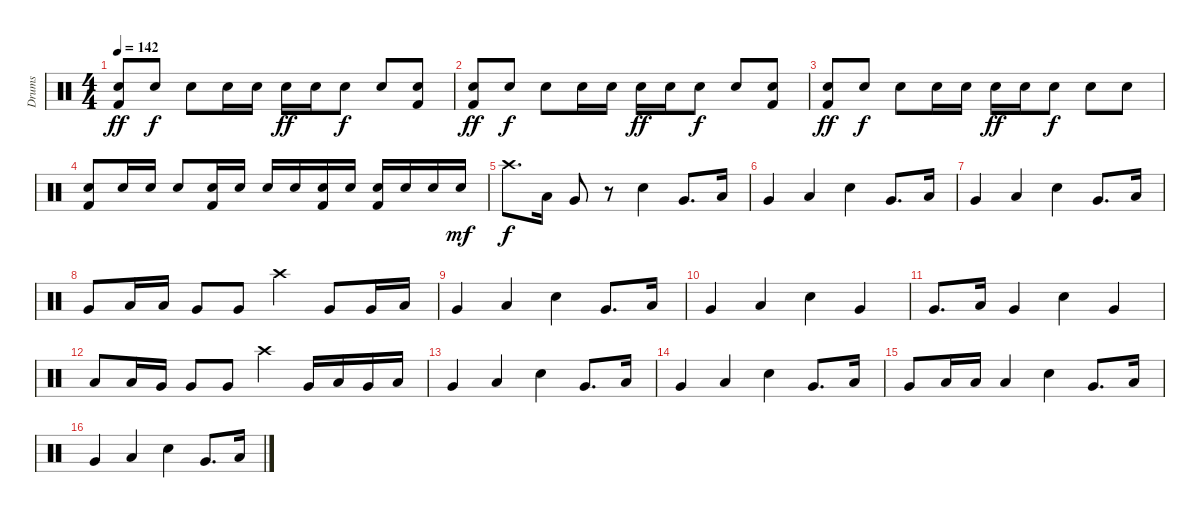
\track ("Drums" "Drums") {instrument percussion}
\staff {score}
\articulation defaults
\ts (4 4)
\tempo 142
\clef neutral
\ks c
("Snare (hit) 2" "Kick (hit) 2").8{dy ff} "Snare (hit) 2".8{dy f} "Snare (hit) 2".8 "Snare (hit) 2".16 "Snare (hit) 2".16 "Snare (hit) 2".16{dy ff} "Snare (hit) 2".16 "Snare (hit) 2".8{dy f} "Snare (hit) 2".8 ("Snare (hit) 2" "Kick (hit) 2").8 |
("Snare (hit) 2" "Kick (hit) 2").8{dy ff} "Snare (hit) 2".8{dy f} "Snare (hit) 2".8 "Snare (hit) 2".16 "Snare (hit) 2".16 "Snare (hit) 2".16{dy ff} "Snare (hit) 2".16 "Snare (hit) 2".8{dy f} "Snare (hit) 2".8 ("Snare (hit) 2" "Kick (hit) 2").8 |
("Snare (hit) 2" "Kick (hit) 2").8{dy ff} "Snare (hit) 2".8{dy f} "Snare (hit) 2".8 "Snare (hit) 2".16 "Snare (hit) 2".16 "Snare (hit) 2".16{dy ff} "Snare (hit) 2".16 "Snare (hit) 2".8{dy f} "Snare (hit) 2".8 "Snare (hit) 2".8 |
("Snare (hit) 2" "Kick (hit) 2").8 "Snare (hit) 2".16 "Snare (hit) 2".16 "Snare (hit) 2".8 ("Snare (hit) 2" "Kick (hit) 2").16 "Snare (hit) 2".16 "Snare (hit) 2".16 "Snare (hit) 2".16 ("Snare (hit) 2" "Kick (hit) 2").16 "Snare (hit) 2".16 ("Snare (hit) 2" "Kick (hit) 2").16 "Snare (hit) 2".16 "Snare (hit) 2".16 "Snare (hit) 2".16{dy mf} |
"Crash high (hit)".8{d dy f} "Low Tom (hit)".16 "Very Low Tom (hit)".8 r.8 "Snare (hit) 2".4 "Very Low Tom (hit)".8{d} "Low Tom (hit)".16 |
"Very Low Tom (hit)".4 "Low Floor Tom (hit)".4 "Snare (hit) 2".4 "Very Low Tom (hit)".8{d} "Low Tom (hit)".16 |
"Very Low Tom (hit)".4 "Low Floor Tom (hit)".4 "Snare (hit) 2".4 "Very Low Tom (hit)".8{d} "Low Tom (hit)".16 |
"Very Low Tom (hit)".8 "Low Tom (hit)".16 "Low Tom (hit)".16 "Very Low Tom (hit)".8 "Very Low Tom (hit)".8 "Crash high (hit)".4 "Very Low Tom (hit)".8 "Very Low Tom (hit)".16 "Low Tom (hit)".16 |
"Very Low Tom (hit)".4 "Low Floor Tom (hit)".4 "Snare (hit) 2".4 "Very Low Tom (hit)".8{d} "Low Tom (hit)".16 |
"Very Low Tom (hit)".4 "Low Floor Tom (hit)".4 "Snare (hit) 2".4 "Very Low Tom (hit)".4 |
"Very Low Tom (hit)".8{d} "Low Tom (hit)".16 "Very Low Tom (hit)".4 "Snare (hit) 2".4 "Very Low Tom (hit)".4 |
"Low Tom (hit)".8 "Low Tom (hit)".16 "Very Low Tom (hit)".16 "Very Low Tom (hit)".8 "Very Low Tom (hit)".8 "Crash high (hit)".4 "Very Low Tom (hit)".16 "Low Tom (hit)".16 "Very Low Tom (hit)".16 "Low Tom (hit)".16 |
"Very Low Tom (hit)".4 "Low Floor Tom (hit)".4 "Snare (hit) 2".4 "Very Low Tom (hit)".8{d} "Low Tom (hit)".16 |
"Very Low Tom (hit)".4 "Low Floor Tom (hit)".4 "Snare (hit) 2".4 "Very Low Tom (hit)".8{d} "Low Tom (hit)".16 |
"Very Low Tom (hit)".8 "Low Tom (hit)".16 "Low Tom (hit)".16 "Low Floor Tom (hit)".4 "Snare (hit) 2".4 "Very Low Tom (hit)".8{d} "Low Tom (hit)".16 |
"Very Low Tom (hit)".4 "Low Floor Tom (hit)".4 "Snare (hit) 2".4 "Very Low Tom (hit)".8{d} "Low Tom (hit)".16
